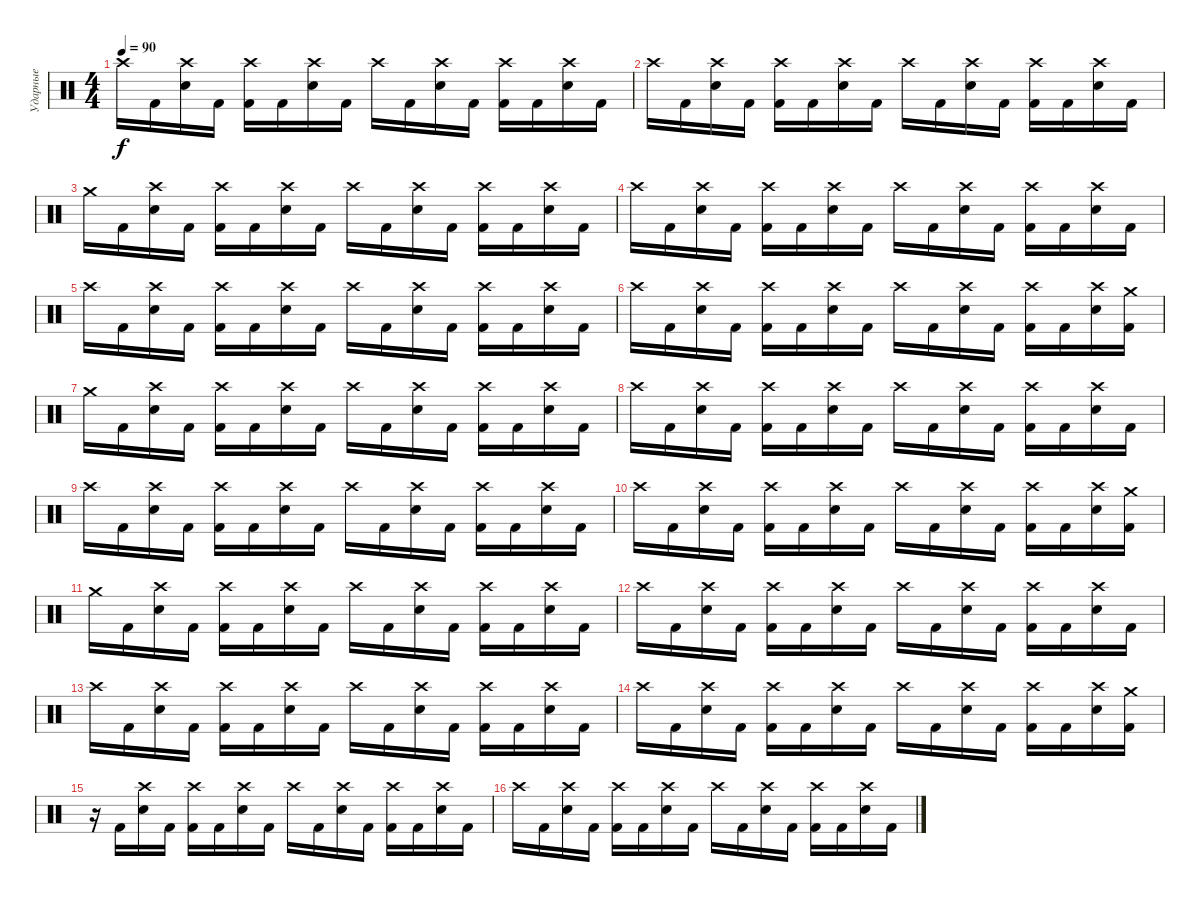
\track ("Ударные" "Ударные") {instrument percussion}
\staff {score}
\articulation defaults
\ts (4 4)
\tempo 90
\clef neutral
\ks c "Crash high (hit)".16{dy f} "Kick (hit) 2".16
("Crash high (hit)" "Electric Snare (hit)").16 "Kick (hit) 2".16 ("Crash high (hit)" "Kick (hit) 2").16 "Kick (hit) 2".16 ("Crash high (hit)" "Electric Snare (hit)").16 "Kick (hit) 2".16 "Crash high (hit)".16 "Kick (hit) 2".16 ("Crash high (hit)" "Electric Snare (hit)").16 "Kick (hit) 2".16 ("Crash high (hit)" "Kick (hit) 2").16 "Kick (hit) 2".16 ("Crash high (hit)" "Electric Snare (hit)").16 "Kick (hit) 2".16 |
"Crash high (hit)".16 "Kick (hit) 2".16 ("Crash high (hit)" "Electric Snare (hit)").16 "Kick (hit) 2".16 ("Crash high (hit)" "Kick (hit) 2").16 "Kick (hit) 2".16 ("Crash high (hit)" "Electric Snare (hit)").16 "Kick (hit) 2".16 "Crash high (hit)".16 "Kick (hit) 2".16 ("Crash high (hit)" "Electric Snare (hit)").16 "Kick (hit) 2".16 ("Crash high (hit)" "Kick (hit) 2").16 "Kick (hit) 2".16 ("Crash high (hit)" "Electric Snare (hit)").16 "Kick (hit) 2".16 |
"Crash medium (hit)".16 "Kick (hit) 2".16 ("Crash high (hit)" "Electric Snare (hit)").16 "Kick (hit) 2".16 ("Crash high (hit)" "Kick (hit) 2").16 "Kick (hit) 2".16 ("Crash high (hit)" "Electric Snare (hit)").16 "Kick (hit) 2".16 "Crash high (hit)".16 "Kick (hit) 2".16 ("Crash high (hit)" "Electric Snare (hit)").16 "Kick (hit) 2".16 ("Crash high (hit)" "Kick (hit) 2").16 "Kick (hit) 2".16 ("Crash high (hit)" "Electric Snare (hit)").16 "Kick (hit) 2".16 |
"Crash high (hit)".16 "Kick (hit) 2".16 ("Crash high (hit)" "Electric Snare (hit)").16 "Kick (hit) 2".16 ("Crash high (hit)" "Kick (hit) 2").16 "Kick (hit) 2".16 ("Crash high (hit)" "Electric Snare (hit)").16 "Kick (hit) 2".16 "Crash high (hit)".16 "Kick (hit) 2".16 ("Crash high (hit)" "Electric Snare (hit)").16 "Kick (hit) 2".16 ("Crash high (hit)" "Kick (hit) 2").16 "Kick (hit) 2".16 ("Crash high (hit)" "Electric Snare (hit)").16 "Kick (hit) 2".16 |
"Crash high (hit)".16 "Kick (hit) 2".16 ("Crash high (hit)" "Electric Snare (hit)").16 "Kick (hit) 2".16 ("Crash high (hit)" "Kick (hit) 2").16 "Kick (hit) 2".16 ("Crash high (hit)" "Electric Snare (hit)").16 "Kick (hit) 2".16 "Crash high (hit)".16 "Kick (hit) 2".16 ("Crash high (hit)" "Electric Snare (hit)").16 "Kick (hit) 2".16 ("Crash high (hit)" "Kick (hit) 2").16 "Kick (hit) 2".16 ("Crash high (hit)" "Electric Snare (hit)").16 "Kick (hit) 2".16 |
"Crash high (hit)".16 "Kick (hit) 2".16 ("Crash high (hit)" "Electric Snare (hit)").16 "Kick (hit) 2".16 ("Crash high (hit)" "Kick (hit) 2").16 "Kick (hit) 2".16 ("Crash high (hit)" "Electric Snare (hit)").16 "Kick (hit) 2".16 "Crash high (hit)".16 "Kick (hit) 2".16 ("Crash high (hit)" "Electric Snare (hit)").16 "Kick (hit) 2".16 ("Crash high (hit)" "Kick (hit) 2").16 "Kick (hit) 2".16 ("Crash high (hit)" "Electric Snare (hit)").16 ("Crash medium (hit)" "Kick (hit) 2").16 |
"Crash medium (hit)".16 "Kick (hit) 2".16 ("Crash high (hit)" "Electric Snare (hit)").16 "Kick (hit) 2".16 ("Crash high (hit)" "Kick (hit) 2").16 "Kick (hit) 2".16 ("Crash high (hit)" "Electric Snare (hit)").16 "Kick (hit) 2".16 "Crash high (hit)".16 "Kick (hit) 2".16 ("Crash high (hit)" "Electric Snare (hit)").16 "Kick (hit) 2".16 ("Crash high (hit)" "Kick (hit) 2").16 "Kick (hit) 2".16 ("Crash high (hit)" "Electric Snare (hit)").16 "Kick (hit) 2".16 |
"Crash high (hit)".16 "Kick (hit) 2".16 ("Crash high (hit)" "Electric Snare (hit)").16 "Kick (hit) 2".16 ("Crash high (hit)" "Kick (hit) 2").16 "Kick (hit) 2".16 ("Crash high (hit)" "Electric Snare (hit)").16 "Kick (hit) 2".16 "Crash high (hit)".16 "Kick (hit) 2".16 ("Crash high (hit)" "Electric Snare (hit)").16 "Kick (hit) 2".16 ("Crash high (hit)" "Kick (hit) 2").16 "Kick (hit) 2".16 ("Crash high (hit)" "Electric Snare (hit)").16 "Kick (hit) 2".16 |
"Crash high (hit)".16 "Kick (hit) 2".16 ("Crash high (hit)" "Electric Snare (hit)").16 "Kick (hit) 2".16 ("Crash high (hit)" "Kick (hit) 2").16 "Kick (hit) 2".16 ("Crash high (hit)" "Electric Snare (hit)").16 "Kick (hit) 2".16 "Crash high (hit)".16 "Kick (hit) 2".16 ("Crash high (hit)" "Electric Snare (hit)").16 "Kick (hit) 2".16 ("Crash high (hit)" "Kick (hit) 2").16 "Kick (hit) 2".16 ("Crash high (hit)" "Electric Snare (hit)").16 "Kick (hit) 2".16 |
"Crash high (hit)".16 "Kick (hit) 2".16 ("Crash high (hit)" "Electric Snare (hit)").16 "Kick (hit) 2".16 ("Crash high (hit)" "Kick (hit) 2").16 "Kick (hit) 2".16 ("Crash high (hit)" "Electric Snare (hit)").16 "Kick (hit) 2".16 "Crash high (hit)".16 "Kick (hit) 2".16 ("Crash high (hit)" "Electric Snare (hit)").16 "Kick (hit) 2".16 ("Crash high (hit)" "Kick (hit) 2").16 "Kick (hit) 2".16 ("Crash high (hit)" "Electric Snare (hit)").16 ("Crash medium (hit)" "Kick (hit) 2").16 |
"Crash medium (hit)".16 "Kick (hit) 2".16 ("Crash high (hit)" "Electric Snare (hit)").16 "Kick (hit) 2".16 ("Crash high (hit)" "Kick (hit) 2").16 "Kick (hit) 2".16 ("Crash high (hit)" "Electric Snare (hit)").16 "Kick (hit) 2".16 "Crash high (hit)".16 "Kick (hit) 2".16 ("Crash high (hit)" "Electric Snare (hit)").16 "Kick (hit) 2".16 ("Crash high (hit)" "Kick (hit) 2").16 "Kick (hit) 2".16 ("Crash high (hit)" "Electric Snare (hit)").16 "Kick (hit) 2".16 |
"Crash high (hit)".16 "Kick (hit) 2".16 ("Crash high (hit)" "Electric Snare (hit)").16 "Kick (hit) 2".16 ("Crash high (hit)" "Kick (hit) 2").16 "Kick (hit) 2".16 ("Crash high (hit)" "Electric Snare (hit)").16 "Kick (hit) 2".16 "Crash high (hit)".16 "Kick (hit) 2".16 ("Crash high (hit)" "Electric Snare (hit)").16 "Kick (hit) 2".16 ("Crash high (hit)" "Kick (hit) 2").16 "Kick (hit) 2".16 ("Crash high (hit)" "Electric Snare (hit)").16 "Kick (hit) 2".16 |
"Crash high (hit)".16 "Kick (hit) 2".16 ("Crash high (hit)" "Electric Snare (hit)").16 "Kick (hit) 2".16 ("Crash high (hit)" "Kick (hit) 2").16 "Kick (hit) 2".16 ("Crash high (hit)" "Electric Snare (hit)").16 "Kick (hit) 2".16 "Crash high (hit)".16 "Kick (hit) 2".16 ("Crash high (hit)" "Electric Snare (hit)").16 "Kick (hit) 2".16 ("Crash high (hit)" "Kick (hit) 2").16 "Kick (hit) 2".16 ("Crash high (hit)" "Electric Snare (hit)").16 "Kick (hit) 2".16 |
"Crash high (hit)".16 "Kick (hit) 2".16 ("Crash high (hit)" "Electric Snare (hit)").16 "Kick (hit) 2".16 ("Crash high (hit)" "Kick (hit) 2").16 "Kick (hit) 2".16 ("Crash high (hit)" "Electric Snare (hit)").16 "Kick (hit) 2".16 "Crash high (hit)".16 "Kick (hit) 2".16 ("Crash high (hit)" "Electric Snare (hit)").16 "Kick (hit) 2".16 ("Crash high (hit)" "Kick (hit) 2").16 "Kick (hit) 2".16 ("Crash high (hit)" "Electric Snare (hit)").16 ("Crash medium (hit)" "Kick (hit) 2").16 |
r.16 "Kick (hit) 2".16 ("Crash high (hit)" "Electric Snare (hit)").16 "Kick (hit) 2".16 ("Crash high (hit)" "Kick (hit) 2").16 "Kick (hit) 2".16 ("Crash high (hit)" "Electric Snare (hit)").16 "Kick (hit) 2".16 "Crash high (hit)".16 "Kick (hit) 2".16 ("Crash high (hit)" "Electric Snare (hit)").16 "Kick (hit) 2".16 ("Crash high (hit)" "Kick (hit) 2").16 "Kick (hit) 2".16 ("Crash high (hit)" "Electric Snare (hit)").16 "Kick (hit) 2".16 |
"Crash high (hit)".16 "Kick (hit) 2".16 ("Crash high (hit)" "Electric Snare (hit)").16 "Kick (hit) 2".16 ("Crash high (hit)" "Kick (hit) 2").16 "Kick (hit) 2".16 ("Crash high (hit)" "Electric Snare (hit)").16 "Kick (hit) 2".16 "Crash high (hit)".16 "Kick (hit) 2".16 ("Crash high (hit)" "Electric Snare (hit)").16 "Kick (hit) 2".16 ("Crash high (hit)" "Kick (hit) 2").16 "Kick (hit) 2".16 ("Crash high (hit)" "Electric Snare (hit)").16 "Kick (hit) 2".16
